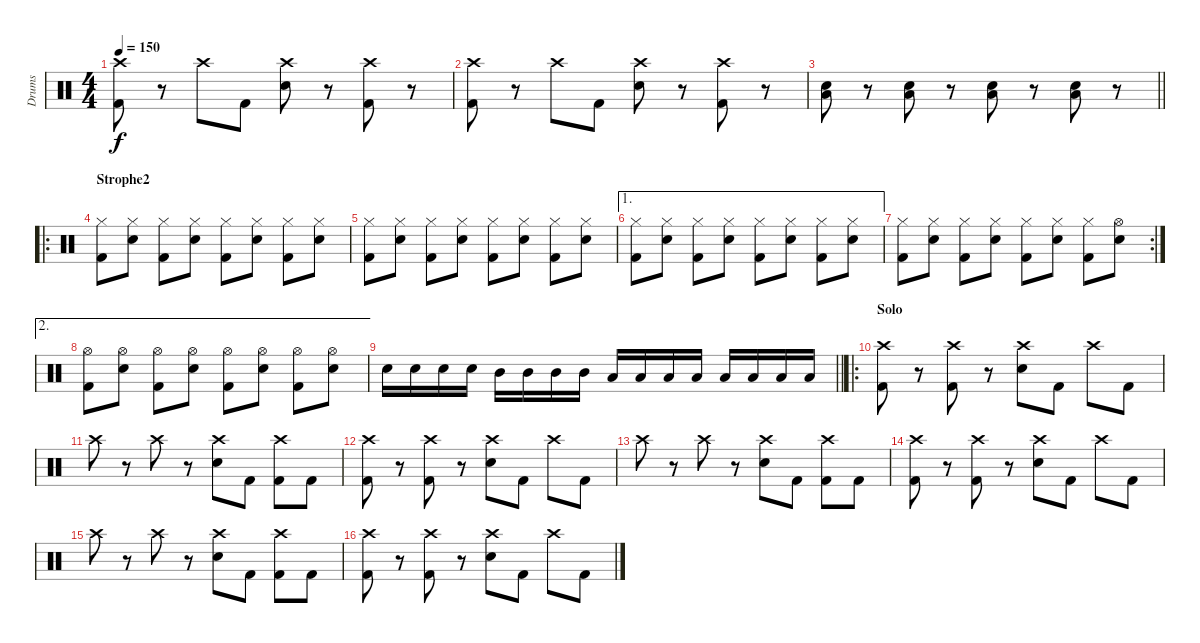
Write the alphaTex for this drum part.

\track ("Drums" "Drums") {instrument percussion}
\staff {score}
\articulation defaults
\ts (4 4)
\tempo 150
\clef neutral
\ks c
("Crash high (hit)" "Kick (hit) 2").8{dy f} r.8 "Crash high (hit)".8 "Kick (hit) 2".8 ("Crash high (hit)" "Snare (hit) 2").8 r.8 ("Crash high (hit)" "Kick (hit) 2").8 r.8 |
("Crash high (hit)" "Kick (hit) 2").8 r.8 "Crash high (hit)".8 "Kick (hit) 2".8 ("Crash high (hit)" "Snare (hit) 2").8 r.8 ("Crash high (hit)" "Kick (hit) 2").8 r.8 |
\barLineRight lightlight
("Snare (hit) 2" "Low Tom (hit)").8 r.8 ("Snare (hit) 2" "Low Tom (hit)").8 r.8 ("Snare (hit) 2" "Low Floor Tom (hit)").8 r.8 ("Snare (hit) 2" "Low Floor Tom (hit)").8 r.8 |
\ro
\section ("" "Strophe2")
("Hi-Hat (closed)" "Kick (hit) 2").8 ("Hi-Hat (closed)" "Snare (hit) 2").8 ("Hi-Hat (closed)" "Kick (hit) 2").8 ("Hi-Hat (closed)" "Snare (hit) 2").8 ("Hi-Hat (closed)" "Kick (hit) 2").8 ("Hi-Hat (closed)" "Snare (hit) 2").8 ("Hi-Hat (closed)" "Kick (hit) 2").8 ("Hi-Hat (closed)" "Snare (hit) 2").8 |
("Hi-Hat (closed)" "Kick (hit) 2").8 ("Hi-Hat (closed)" "Snare (hit) 2").8 ("Hi-Hat (closed)" "Kick (hit) 2").8 ("Hi-Hat (closed)" "Snare (hit) 2").8 ("Hi-Hat (closed)" "Kick (hit) 2").8 ("Hi-Hat (closed)" "Snare (hit) 2").8 ("Hi-Hat (closed)" "Kick (hit) 2").8 ("Hi-Hat (closed)" "Snare (hit) 2").8 |
\ae 1
("Hi-Hat (closed)" "Kick (hit) 2").8 ("Hi-Hat (closed)" "Snare (hit) 2").8 ("Hi-Hat (closed)" "Kick (hit) 2").8 ("Hi-Hat (closed)" "Snare (hit) 2").8 ("Hi-Hat (closed)" "Kick (hit) 2").8 ("Hi-Hat (closed)" "Snare (hit) 2").8 ("Hi-Hat (closed)" "Kick (hit) 2").8 ("Hi-Hat (closed)" "Snare (hit) 2").8 |
\rc 2
("Hi-Hat (closed)" "Kick (hit) 2").8 ("Hi-Hat (closed)" "Snare (hit) 2").8 ("Hi-Hat (closed)" "Kick (hit) 2").8 ("Hi-Hat (closed)" "Snare (hit) 2").8 ("Hi-Hat (closed)" "Kick (hit) 2").8 ("Hi-Hat (closed)" "Snare (hit) 2").8 ("Hi-Hat (closed)" "Kick (hit) 2").8 ("Hi-Hat (open)" "Snare (hit) 2").8 |
\ae 2
("Hi-Hat (open)" "Kick (hit) 2").8 ("Hi-Hat (open)" "Snare (hit) 2").8 ("Hi-Hat (open)" "Kick (hit) 2").8 ("Hi-Hat (open)" "Snare (hit) 2").8 ("Hi-Hat (open)" "Kick (hit) 2").8 ("Hi-Hat (open)" "Snare (hit) 2").8 ("Hi-Hat (open)" "Kick (hit) 2").8 ("Hi-Hat (open)" "Snare (hit) 2").8 |
\barLineRight lightlight "Snare (hit) 2".16 "Snare (hit) 2".16 "Snare (hit) 2".16 "Snare (hit) 2".16 "Mid Tom (hit)".16 "Mid Tom (hit)".16 "Mid Tom (hit)".16 "Mid Tom (hit)".16 "Low Tom (hit)".16 "Low Tom (hit)".16 "Low Tom (hit)".16 "Low Tom (hit)".16 "Low Floor Tom (hit)".16 "Low Floor Tom (hit)".16 "Low Floor Tom (hit)".16 "Low Floor Tom (hit)".16
|
\ro
\section ("" "Solo")
("Crash high (hit)" "Kick (hit) 2").8 r.8 ("Crash high (hit)" "Kick (hit) 2").8 r.8 ("Crash high (hit)" "Snare (hit) 2").8 "Kick (hit) 2".8 "Crash high (hit)".8 "Kick (hit) 2".8 |
"Crash high (hit)".8 r.8 "Crash high (hit)".8 r.8 ("Crash high (hit)" "Snare (hit) 2").8 "Kick (hit) 2".8 ("Crash high (hit)" "Kick (hit) 2").8 "Kick (hit) 2".8 |
("Crash high (hit)" "Kick (hit) 2").8 r.8 ("Crash high (hit)" "Kick (hit) 2").8 r.8 ("Crash high (hit)" "Snare (hit) 2").8 "Kick (hit) 2".8 "Crash high (hit)".8 "Kick (hit) 2".8 |
"Crash high (hit)".8 r.8 "Crash high (hit)".8 r.8 ("Crash high (hit)" "Snare (hit) 2").8 "Kick (hit) 2".8 ("Crash high (hit)" "Kick (hit) 2").8 "Kick (hit) 2".8 |
("Crash high (hit)" "Kick (hit) 2").8 r.8 ("Crash high (hit)" "Kick (hit) 2").8 r.8 ("Crash high (hit)" "Snare (hit) 2").8 "Kick (hit) 2".8 "Crash high (hit)".8 "Kick (hit) 2".8 |
"Crash high (hit)".8 r.8 "Crash high (hit)".8 r.8 ("Crash high (hit)" "Snare (hit) 2").8 "Kick (hit) 2".8 ("Crash high (hit)" "Kick (hit) 2").8 "Kick (hit) 2".8 |
("Crash high (hit)" "Kick (hit) 2").8 r.8 ("Crash high (hit)" "Kick (hit) 2").8 r.8 ("Crash high (hit)" "Snare (hit) 2").8 "Kick (hit) 2".8 "Crash high (hit)".8 "Kick (hit) 2".8
